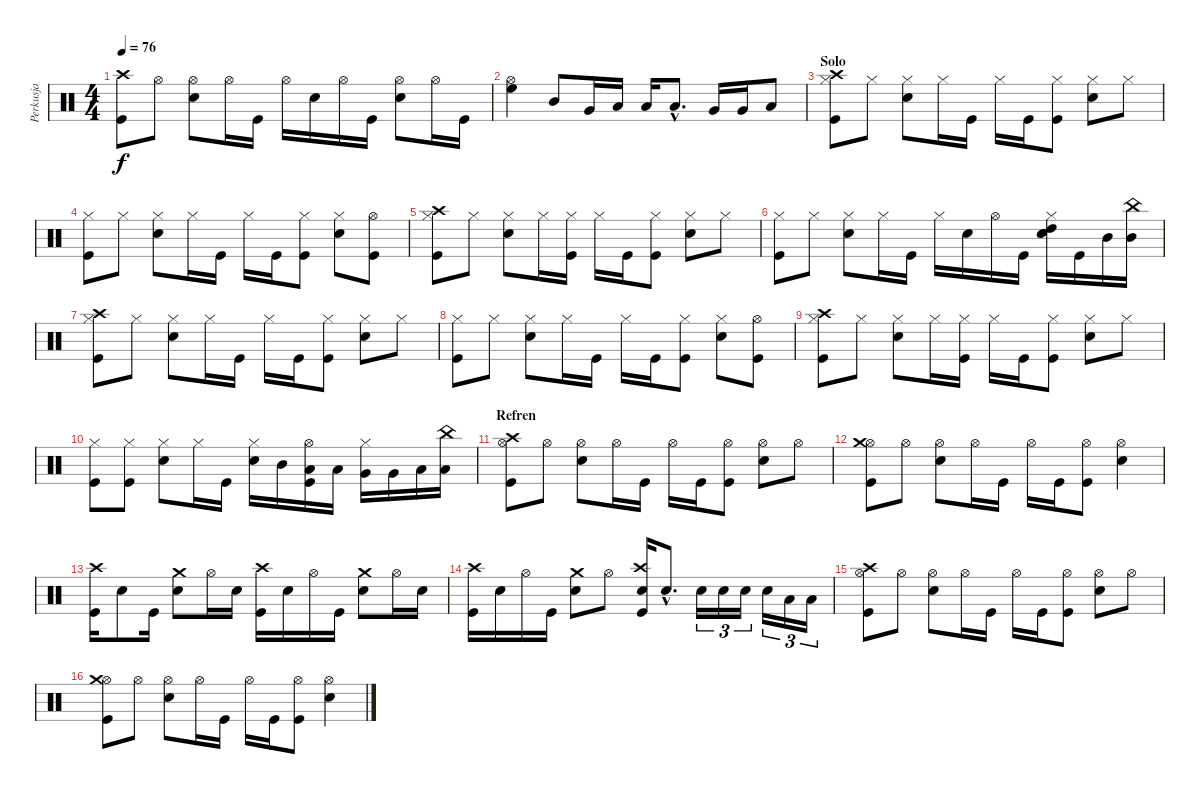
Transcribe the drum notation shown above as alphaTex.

\track ("Perkusja" "Perkusja") {instrument percussion}
\staff {score}
\articulation defaults
\ts (4 4)
\tempo 76
\clef neutral
\ks c
("Kick (hit)" "Crash high (hit)").8{dy f} "Hi-Hat (open)".8 ("Snare (hit) 2" "Hi-Hat (open)").8 "Hi-Hat (open)".16 "Kick (hit)".16 "Hi-Hat (open)".16 "Snare (hit) 2".16 "Hi-Hat (open)".16 "Kick (hit)".16 ("Snare (hit) 2" "Hi-Hat (open)").8 "Hi-Hat (open)".16 "Kick (hit)".16 |
("Hi-Hat (open)" "High Floor Tom (hit)").4 "Mid Tom (hit)".8 "Very Low Tom (hit)".16 "Low Tom (hit)".16 "Low Tom (hit)".16 "Low Tom (hit)"{hac}.8{d} "Very Low Tom (hit)".16 "Very Low Tom (hit)".16 "Low Floor Tom (hit)".8 |
\section ("" "Solo")
("Kick (hit)" "Hi-Hat (closed)" "Crash high (hit)").8 "Hi-Hat (closed)".8 ("Snare (hit) 2" "Hi-Hat (closed)").8 "Hi-Hat (closed)".16 "Kick (hit)".16 "Hi-Hat (closed)".16 "Kick (hit)".16 ("Kick (hit)" "Hi-Hat (closed)").8 ("Snare (hit) 2" "Hi-Hat (closed)").8 "Hi-Hat (closed)".8 |
("Kick (hit)" "Hi-Hat (closed)").8 "Hi-Hat (closed)".8 ("Snare (hit) 2" "Hi-Hat (closed)").8 "Hi-Hat (closed)".16 "Kick (hit)".16 "Hi-Hat (closed)".16 "Kick (hit)".16 ("Kick (hit)" "Hi-Hat (closed)").8 ("Snare (hit) 2" "Hi-Hat (closed)").8 ("Kick (hit)" "Hi-Hat (open)").8 |
("Kick (hit)" "Hi-Hat (closed)" "Crash high (hit)").8 "Hi-Hat (closed)".8 ("Snare (hit) 2" "Hi-Hat (closed)").8 "Hi-Hat (closed)".16 ("Kick (hit)" "Hi-Hat (closed)").16 "Hi-Hat (closed)".16 "Kick (hit)".16 ("Kick (hit)" "Hi-Hat (closed)").8 ("Snare (hit) 2" "Hi-Hat (closed)").8 "Hi-Hat (closed)".8 |
("Kick (hit)" "Hi-Hat (closed)").8 "Hi-Hat (closed)".8 ("Snare (hit) 2" "Hi-Hat (closed)").8 "Hi-Hat (closed)".16 "Kick (hit)".16 "Hi-Hat (closed)".16 "Snare (hit) 2".16 "Hi-Hat (open)".16 "Kick (hit)".16 ("Snare (hit) 2" "Hi-Hat (closed)" "High Tom (hit)" "Snare (hit) 2").16 "Kick (hit)".16 "Mid Tom (hit)".16 ("Mid Tom (hit)" "China (hit)").16 |
("Kick (hit)" "Hi-Hat (closed)" "Crash high (hit)").8 "Hi-Hat (closed)".8 ("Snare (hit) 2" "Hi-Hat (closed)").8 "Hi-Hat (closed)".16 "Kick (hit)".16 "Hi-Hat (closed)".16 "Kick (hit)".16 ("Kick (hit)" "Hi-Hat (closed)").8 ("Snare (hit) 2" "Hi-Hat (closed)").8 "Hi-Hat (closed)".8 |
("Kick (hit)" "Hi-Hat (closed)").8 "Hi-Hat (closed)".8 ("Snare (hit) 2" "Hi-Hat (closed)").8 "Hi-Hat (closed)".16 "Kick (hit)".16 "Hi-Hat (closed)".16 "Kick (hit)".16 ("Kick (hit)" "Hi-Hat (closed)").8 ("Snare (hit) 2" "Hi-Hat (closed)").8 ("Kick (hit)" "Hi-Hat (open)").8 |
("Kick (hit)" "Hi-Hat (closed)" "Crash high (hit)").8 "Hi-Hat (closed)".8 ("Snare (hit) 2" "Hi-Hat (closed)").8 "Hi-Hat (closed)".16 ("Kick (hit)" "Hi-Hat (closed)").16 "Hi-Hat (closed)".16 "Kick (hit)".16 ("Kick (hit)" "Hi-Hat (closed)").8 ("Snare (hit) 2" "Hi-Hat (closed)").8 "Hi-Hat (closed)".8 |
("Kick (hit)" "Hi-Hat (closed)").8 ("Hi-Hat (closed)" "Kick (hit)").8 ("Snare (hit) 2" "Hi-Hat (closed)").8 "Hi-Hat (closed)".16 "Kick (hit)".16 ("Snare (hit) 2" "Hi-Hat (closed)").16 "Mid Tom (hit)".16 ("Kick (hit)" "Low Tom (hit)" "Hi-Hat (open)").16 "Low Tom (hit)".16 ("Hi-Hat (closed)" "Very Low Tom (hit)").16 "Very Low Tom (hit)".16 "Low Floor Tom (hit)".16 ("Low Floor Tom (hit)" "China (hit)").16 |
\section ("" "Refren")
("Kick (hit)" "Hi-Hat (open)" "Crash high (hit)").8 "Hi-Hat (open)".8 ("Snare (hit) 2" "Hi-Hat (open)").8 "Hi-Hat (open)".16 "Kick (hit)".16 "Hi-Hat (open)".16 "Kick (hit)".16 ("Kick (hit)" "Hi-Hat (open)").8 ("Snare (hit) 2" "Hi-Hat (open)").8 "Hi-Hat (open)".8 |
("Kick (hit)" "Hi-Hat (open)" "Crash medium (hit)").8 "Hi-Hat (open)".8 ("Snare (hit) 2" "Hi-Hat (open)").8 "Hi-Hat (open)".16 "Kick (hit)".16 "Hi-Hat (open)".16 "Kick (hit)".16 ("Kick (hit)" "Hi-Hat (open)").8 ("Snare (hit) 2" "Hi-Hat (open)").4 |
("Kick (hit)" "Crash high (hit)").16 "Snare (hit) 2".8 "Kick (hit)".16 ("Snare (hit) 2" "Crash medium (hit)").8 "Hi-Hat (open)".16 "Snare (hit) 2".16 ("Kick (hit)" "Crash high (hit)").16 "Snare (hit) 2".16 "Hi-Hat (open)".16 "Kick (hit)".16 ("Snare (hit) 2" "Crash medium (hit)").8 "Hi-Hat (open)".16 "Snare (hit) 2".16 |
("Kick (hit)" "Crash high (hit)").16 "Snare (hit) 2".16 "Hi-Hat (open)".16 "Kick (hit)".16 ("Snare (hit) 2" "Crash medium (hit)").8 "Hi-Hat (open)".8 ("Kick (hit)" "Snare (hit) 2" "Crash high (hit)").16 "Snare (hit) 2"{hac}.8{d} "Snare (hit) 2".16{tu (3 2)} "Snare (hit) 2".16{tu (3 2)} "Snare (hit) 2".16{tu (3 2)} "Snare (hit) 2".16{tu (3 2)} "Low Tom (hit)".16{tu (3 2)} "Low Tom (hit)".16{tu (3 2)} |
("Kick (hit)" "Hi-Hat (open)" "Crash high (hit)").8 "Hi-Hat (open)".8 ("Snare (hit) 2" "Hi-Hat (open)").8 "Hi-Hat (open)".16 "Kick (hit)".16 "Hi-Hat (open)".16 "Kick (hit)".16 ("Kick (hit)" "Hi-Hat (open)").8 ("Snare (hit) 2" "Hi-Hat (open)").8 "Hi-Hat (open)".8 |
("Kick (hit)" "Hi-Hat (open)" "Crash medium (hit)").8 "Hi-Hat (open)".8 ("Snare (hit) 2" "Hi-Hat (open)").8 "Hi-Hat (open)".16 "Kick (hit)".16 "Hi-Hat (open)".16 "Kick (hit)".16 ("Kick (hit)" "Hi-Hat (open)").8 ("Snare (hit) 2" "Hi-Hat (open)").4
